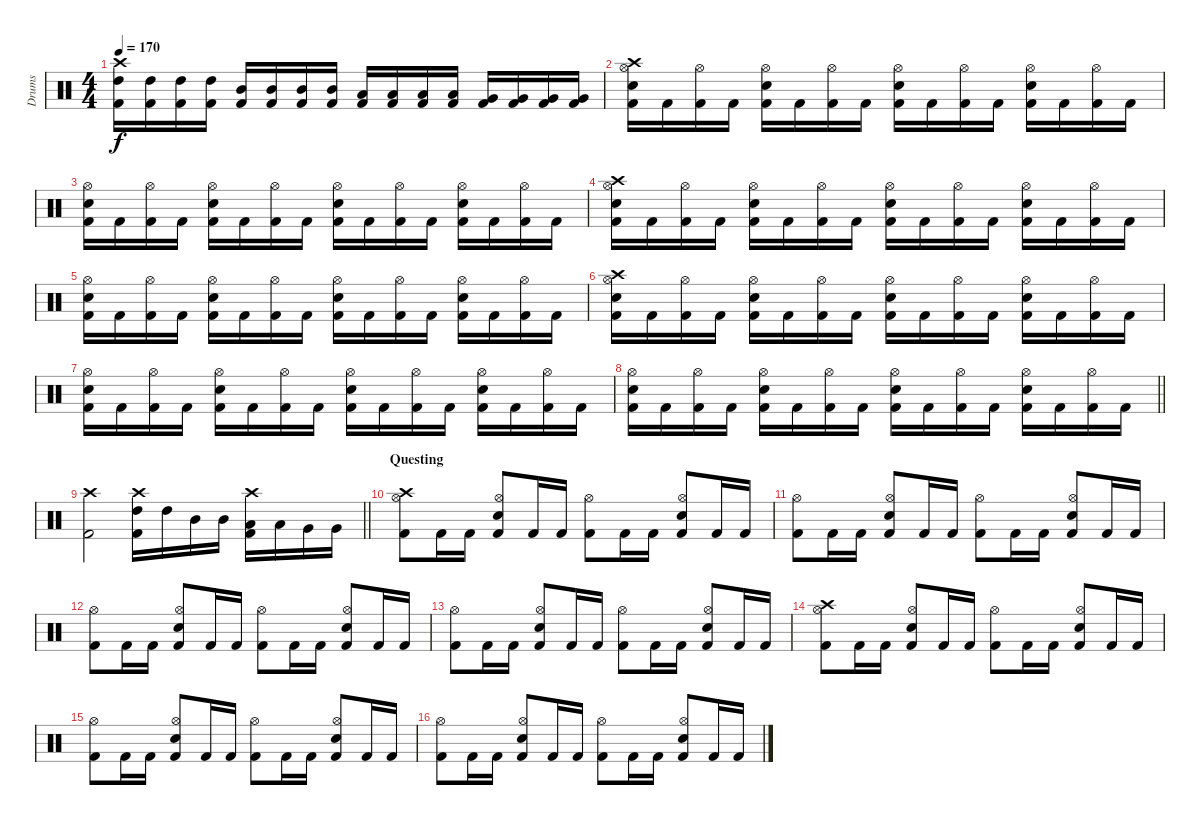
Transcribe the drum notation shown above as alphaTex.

\track ("Drums" "Drums") {instrument percussion}
\staff {score}
\articulation defaults
\ts (4 4)
\tempo 170
\clef neutral
\ks c
("Crash high (hit)" "High Tom (hit)" "Kick (hit) 2").16{dy f} ("High Tom (hit)" "Kick (hit) 2").16 ("High Tom (hit)" "Kick (hit) 2").16 ("High Tom (hit)" "Kick (hit) 2").16 ("Mid Tom (hit)" "Kick (hit) 2").16 ("Mid Tom (hit)" "Kick (hit) 2").16 ("Mid Tom (hit)" "Kick (hit) 2").16 ("Mid Tom (hit)" "Kick (hit) 2").16 ("Low Tom (hit)" "Kick (hit) 2").16 ("Low Tom (hit)" "Kick (hit) 2").16 ("Low Tom (hit)" "Kick (hit) 2").16 ("Low Tom (hit)" "Kick (hit) 2").16 ("Very Low Tom (hit)" "Kick (hit) 2").16 ("Very Low Tom (hit)" "Kick (hit) 2").16 ("Very Low Tom (hit)" "Kick (hit) 2").16 ("Very Low Tom (hit)" "Kick (hit) 2").16 |
("Crash high (hit)" "Hi-Hat (open)" "Snare (hit) 2" "Kick (hit) 2").16 "Kick (hit) 2".16 ("Hi-Hat (open)" "Kick (hit) 2").16 "Kick (hit) 2".16 ("Hi-Hat (open)" "Snare (hit) 2" "Kick (hit) 2").16 "Kick (hit) 2".16 ("Hi-Hat (open)" "Kick (hit) 2").16 "Kick (hit) 2".16 ("Hi-Hat (open)" "Snare (hit) 2" "Kick (hit) 2").16 "Kick (hit) 2".16 ("Hi-Hat (open)" "Kick (hit) 2").16 "Kick (hit) 2".16 ("Hi-Hat (open)" "Snare (hit) 2" "Kick (hit) 2").16 "Kick (hit) 2".16 ("Hi-Hat (open)" "Kick (hit) 2").16 "Kick (hit) 2".16 |
("Hi-Hat (open)" "Snare (hit) 2" "Kick (hit) 2").16 "Kick (hit) 2".16 ("Hi-Hat (open)" "Kick (hit) 2").16 "Kick (hit) 2".16 ("Hi-Hat (open)" "Snare (hit) 2" "Kick (hit) 2").16 "Kick (hit) 2".16 ("Hi-Hat (open)" "Kick (hit) 2").16 "Kick (hit) 2".16 ("Hi-Hat (open)" "Snare (hit) 2" "Kick (hit) 2").16 "Kick (hit) 2".16 ("Hi-Hat (open)" "Kick (hit) 2").16 "Kick (hit) 2".16 ("Hi-Hat (open)" "Snare (hit) 2" "Kick (hit) 2").16 "Kick (hit) 2".16 ("Hi-Hat (open)" "Kick (hit) 2").16 "Kick (hit) 2".16 |
("Crash high (hit)" "Hi-Hat (open)" "Snare (hit) 2" "Kick (hit) 2").16 "Kick (hit) 2".16 ("Hi-Hat (open)" "Kick (hit) 2").16 "Kick (hit) 2".16 ("Hi-Hat (open)" "Snare (hit) 2" "Kick (hit) 2").16 "Kick (hit) 2".16 ("Hi-Hat (open)" "Kick (hit) 2").16 "Kick (hit) 2".16 ("Hi-Hat (open)" "Snare (hit) 2" "Kick (hit) 2").16 "Kick (hit) 2".16 ("Hi-Hat (open)" "Kick (hit) 2").16 "Kick (hit) 2".16 ("Hi-Hat (open)" "Snare (hit) 2" "Kick (hit) 2").16 "Kick (hit) 2".16 ("Hi-Hat (open)" "Kick (hit) 2").16 "Kick (hit) 2".16 |
("Hi-Hat (open)" "Snare (hit) 2" "Kick (hit) 2").16 "Kick (hit) 2".16 ("Hi-Hat (open)" "Kick (hit) 2").16 "Kick (hit) 2".16 ("Hi-Hat (open)" "Snare (hit) 2" "Kick (hit) 2").16 "Kick (hit) 2".16 ("Hi-Hat (open)" "Kick (hit) 2").16 "Kick (hit) 2".16 ("Hi-Hat (open)" "Snare (hit) 2" "Kick (hit) 2").16 "Kick (hit) 2".16 ("Hi-Hat (open)" "Kick (hit) 2").16 "Kick (hit) 2".16 ("Hi-Hat (open)" "Snare (hit) 2" "Kick (hit) 2").16 "Kick (hit) 2".16 ("Hi-Hat (open)" "Kick (hit) 2").16 "Kick (hit) 2".16 |
("Crash high (hit)" "Hi-Hat (open)" "Snare (hit) 2" "Kick (hit) 2").16 "Kick (hit) 2".16 ("Hi-Hat (open)" "Kick (hit) 2").16 "Kick (hit) 2".16 ("Hi-Hat (open)" "Snare (hit) 2" "Kick (hit) 2").16 "Kick (hit) 2".16 ("Hi-Hat (open)" "Kick (hit) 2").16 "Kick (hit) 2".16 ("Hi-Hat (open)" "Snare (hit) 2" "Kick (hit) 2").16 "Kick (hit) 2".16 ("Hi-Hat (open)" "Kick (hit) 2").16 "Kick (hit) 2".16 ("Hi-Hat (open)" "Snare (hit) 2" "Kick (hit) 2").16 "Kick (hit) 2".16 ("Hi-Hat (open)" "Kick (hit) 2").16 "Kick (hit) 2".16 |
("Hi-Hat (open)" "Snare (hit) 2" "Kick (hit) 2").16 "Kick (hit) 2".16 ("Hi-Hat (open)" "Kick (hit) 2").16 "Kick (hit) 2".16 ("Hi-Hat (open)" "Snare (hit) 2" "Kick (hit) 2").16 "Kick (hit) 2".16 ("Hi-Hat (open)" "Kick (hit) 2").16 "Kick (hit) 2".16 ("Hi-Hat (open)" "Snare (hit) 2" "Kick (hit) 2").16 "Kick (hit) 2".16 ("Hi-Hat (open)" "Kick (hit) 2").16 "Kick (hit) 2".16 ("Hi-Hat (open)" "Snare (hit) 2" "Kick (hit) 2").16 "Kick (hit) 2".16 ("Hi-Hat (open)" "Kick (hit) 2").16 "Kick (hit) 2".16 |
\barLineRight lightlight
("Hi-Hat (open)" "Snare (hit) 2" "Kick (hit) 2").16 "Kick (hit) 2".16 ("Hi-Hat (open)" "Kick (hit) 2").16 "Kick (hit) 2".16 ("Hi-Hat (open)" "Snare (hit) 2" "Kick (hit) 2").16 "Kick (hit) 2".16 ("Hi-Hat (open)" "Kick (hit) 2").16 "Kick (hit) 2".16 ("Hi-Hat (open)" "Snare (hit) 2" "Kick (hit) 2").16 "Kick (hit) 2".16 ("Hi-Hat (open)" "Kick (hit) 2").16 "Kick (hit) 2".16 ("Hi-Hat (open)" "Snare (hit) 2" "Kick (hit) 2").16 "Kick (hit) 2".16 ("Hi-Hat (open)" "Kick (hit) 2").16 "Kick (hit) 2".16 |
\barLineRight lightlight
("Crash high (hit)" "Kick (hit) 2").2 ("Crash high (hit)" "High Tom (hit)" "Kick (hit) 2").16 "High Tom (hit)".16 "Mid Tom (hit)".16 "Mid Tom (hit)".16 ("Crash high (hit)" "Low Tom (hit)" "Kick (hit) 2").16 "Low Tom (hit)".16 "Very Low Tom (hit)".16 "Very Low Tom (hit)".16 |
\section ("" "Questing")
("Crash high (hit)" "Hi-Hat (open)" "Kick (hit) 2").8 "Kick (hit) 2".16 "Kick (hit) 2".16 ("Hi-Hat (open)" "Snare (hit) 2" "Kick (hit) 2").8 "Kick (hit) 2".16 "Kick (hit) 2".16 ("Hi-Hat (open)" "Kick (hit) 2").8 "Kick (hit) 2".16 "Kick (hit) 2".16 ("Hi-Hat (open)" "Snare (hit) 2" "Kick (hit) 2").8 "Kick (hit) 2".16 "Kick (hit) 2".16 |
("Hi-Hat (open)" "Kick (hit) 2").8 "Kick (hit) 2".16 "Kick (hit) 2".16 ("Hi-Hat (open)" "Snare (hit) 2" "Kick (hit) 2").8 "Kick (hit) 2".16 "Kick (hit) 2".16 ("Hi-Hat (open)" "Kick (hit) 2").8 "Kick (hit) 2".16 "Kick (hit) 2".16 ("Hi-Hat (open)" "Snare (hit) 2" "Kick (hit) 2").8 "Kick (hit) 2".16 "Kick (hit) 2".16 |
("Hi-Hat (open)" "Kick (hit) 2").8 "Kick (hit) 2".16 "Kick (hit) 2".16 ("Hi-Hat (open)" "Snare (hit) 2" "Kick (hit) 2").8 "Kick (hit) 2".16 "Kick (hit) 2".16 ("Hi-Hat (open)" "Kick (hit) 2").8 "Kick (hit) 2".16 "Kick (hit) 2".16 ("Hi-Hat (open)" "Snare (hit) 2" "Kick (hit) 2").8 "Kick (hit) 2".16 "Kick (hit) 2".16 |
("Hi-Hat (open)" "Kick (hit) 2").8 "Kick (hit) 2".16 "Kick (hit) 2".16 ("Hi-Hat (open)" "Snare (hit) 2" "Kick (hit) 2").8 "Kick (hit) 2".16 "Kick (hit) 2".16 ("Hi-Hat (open)" "Kick (hit) 2").8 "Kick (hit) 2".16 "Kick (hit) 2".16 ("Hi-Hat (open)" "Snare (hit) 2" "Kick (hit) 2").8 "Kick (hit) 2".16 "Kick (hit) 2".16 |
("Crash high (hit)" "Hi-Hat (open)" "Kick (hit) 2").8 "Kick (hit) 2".16 "Kick (hit) 2".16 ("Hi-Hat (open)" "Snare (hit) 2" "Kick (hit) 2").8 "Kick (hit) 2".16 "Kick (hit) 2".16 ("Hi-Hat (open)" "Kick (hit) 2").8 "Kick (hit) 2".16 "Kick (hit) 2".16 ("Hi-Hat (open)" "Snare (hit) 2" "Kick (hit) 2").8 "Kick (hit) 2".16 "Kick (hit) 2".16 |
("Hi-Hat (open)" "Kick (hit) 2").8 "Kick (hit) 2".16 "Kick (hit) 2".16 ("Hi-Hat (open)" "Snare (hit) 2" "Kick (hit) 2").8 "Kick (hit) 2".16 "Kick (hit) 2".16 ("Hi-Hat (open)" "Kick (hit) 2").8 "Kick (hit) 2".16 "Kick (hit) 2".16 ("Hi-Hat (open)" "Snare (hit) 2" "Kick (hit) 2").8 "Kick (hit) 2".16 "Kick (hit) 2".16 |
("Hi-Hat (open)" "Kick (hit) 2").8 "Kick (hit) 2".16 "Kick (hit) 2".16 ("Hi-Hat (open)" "Snare (hit) 2" "Kick (hit) 2").8 "Kick (hit) 2".16 "Kick (hit) 2".16 ("Hi-Hat (open)" "Kick (hit) 2").8 "Kick (hit) 2".16 "Kick (hit) 2".16 ("Hi-Hat (open)" "Snare (hit) 2" "Kick (hit) 2").8 "Kick (hit) 2".16 "Kick (hit) 2".16
